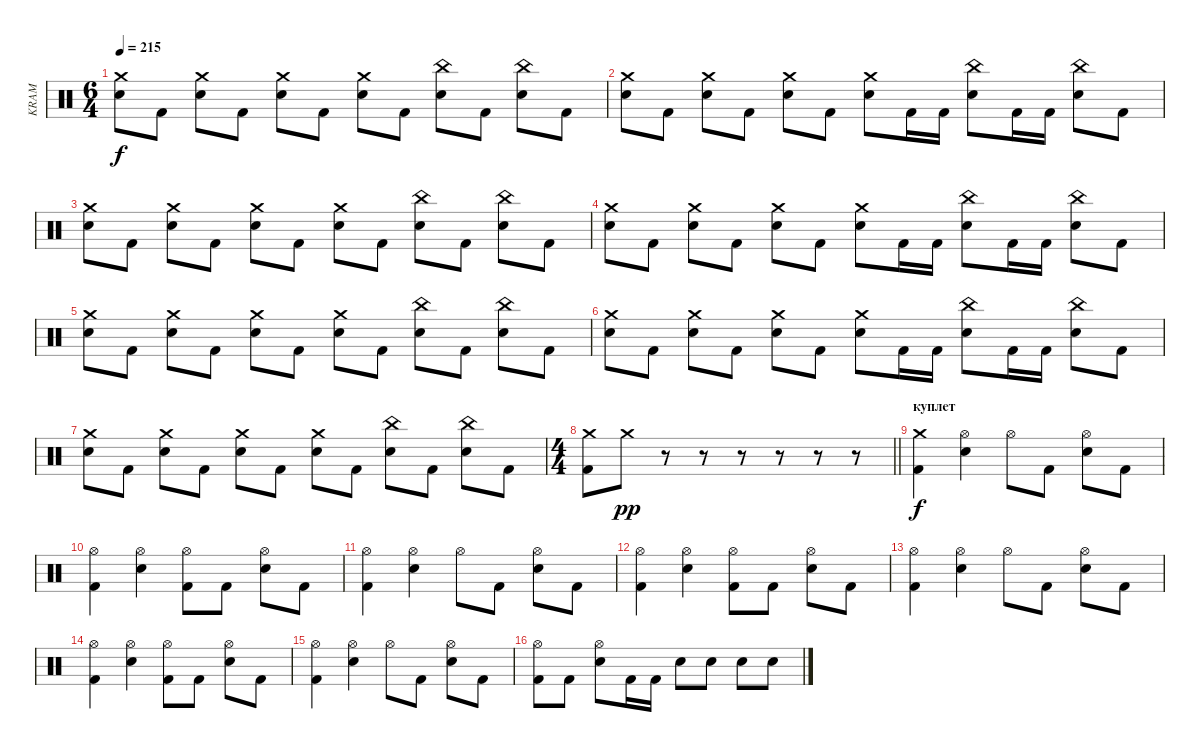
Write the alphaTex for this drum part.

\track ("KRAM" "KRAM") {instrument percussion}
\staff {score}
\articulation defaults
\ts (6 4)
\tempo 215
\clef neutral
\ks c
("Electric Snare (hit)" "Crash medium (hit)").8{dy f} "Kick (hit) 2".8 ("Electric Snare (hit)" "Crash medium (hit)").8 "Kick (hit) 2".8 ("Electric Snare (hit)" "Crash medium (hit)").8 "Kick (hit) 2".8 ("Electric Snare (hit)" "Crash medium (hit)").8 "Kick (hit) 2".8 ("Electric Snare (hit)" "China (hit)").8 "Kick (hit) 2".8 ("Electric Snare (hit)" "China (hit)").8 "Kick (hit) 2".8 |
("Electric Snare (hit)" "Crash medium (hit)").8 "Kick (hit) 2".8 ("Electric Snare (hit)" "Crash medium (hit)").8 "Kick (hit) 2".8 ("Electric Snare (hit)" "Crash medium (hit)").8 "Kick (hit) 2".8 ("Electric Snare (hit)" "Crash medium (hit)").8 "Kick (hit) 2".16 "Kick (hit) 2".16 ("Electric Snare (hit)" "China (hit)").8 "Kick (hit) 2".16 "Kick (hit) 2".16 ("Electric Snare (hit)" "China (hit)").8 "Kick (hit) 2".8 |
("Electric Snare (hit)" "Crash medium (hit)").8 "Kick (hit) 2".8 ("Electric Snare (hit)" "Crash medium (hit)").8 "Kick (hit) 2".8 ("Electric Snare (hit)" "Crash medium (hit)").8 "Kick (hit) 2".8 ("Electric Snare (hit)" "Crash medium (hit)").8 "Kick (hit) 2".8 ("Electric Snare (hit)" "China (hit)").8 "Kick (hit) 2".8 ("Electric Snare (hit)" "China (hit)").8 "Kick (hit) 2".8 |
("Electric Snare (hit)" "Crash medium (hit)").8 "Kick (hit) 2".8 ("Electric Snare (hit)" "Crash medium (hit)").8 "Kick (hit) 2".8 ("Electric Snare (hit)" "Crash medium (hit)").8 "Kick (hit) 2".8 ("Electric Snare (hit)" "Crash medium (hit)").8 "Kick (hit) 2".16 "Kick (hit) 2".16 ("Electric Snare (hit)" "China (hit)").8 "Kick (hit) 2".16 "Kick (hit) 2".16 ("Electric Snare (hit)" "China (hit)").8 "Kick (hit) 2".8 |
("Electric Snare (hit)" "Crash medium (hit)").8 "Kick (hit) 2".8 ("Electric Snare (hit)" "Crash medium (hit)").8 "Kick (hit) 2".8 ("Electric Snare (hit)" "Crash medium (hit)").8 "Kick (hit) 2".8 ("Electric Snare (hit)" "Crash medium (hit)").8 "Kick (hit) 2".8 ("Electric Snare (hit)" "China (hit)").8 "Kick (hit) 2".8 ("Electric Snare (hit)" "China (hit)").8 "Kick (hit) 2".8 |
("Electric Snare (hit)" "Crash medium (hit)").8 "Kick (hit) 2".8 ("Electric Snare (hit)" "Crash medium (hit)").8 "Kick (hit) 2".8 ("Electric Snare (hit)" "Crash medium (hit)").8 "Kick (hit) 2".8 ("Electric Snare (hit)" "Crash medium (hit)").8 "Kick (hit) 2".16 "Kick (hit) 2".16 ("Electric Snare (hit)" "China (hit)").8 "Kick (hit) 2".16 "Kick (hit) 2".16 ("Electric Snare (hit)" "China (hit)").8 "Kick (hit) 2".8 |
("Electric Snare (hit)" "Crash medium (hit)").8 "Kick (hit) 2".8 ("Electric Snare (hit)" "Crash medium (hit)").8 "Kick (hit) 2".8 ("Electric Snare (hit)" "Crash medium (hit)").8 "Kick (hit) 2".8 ("Electric Snare (hit)" "Crash medium (hit)").8 "Kick (hit) 2".8 ("Electric Snare (hit)" "China (hit)").8 "Kick (hit) 2".8 ("Electric Snare (hit)" "China (hit)").8 "Kick (hit) 2".8 |
\ts (4 4)
\barLineRight lightlight
("Kick (hit) 2" "Crash medium (hit)").8 "Crash medium (hit)".8{dy pp} r.8 r.8 r.8 r.8 r.8 r.8 |
\section ("" "куплет")
("Kick (hit) 2" "Crash medium (hit)").4{dy f} ("Electric Snare (hit)" "Hi-Hat (open)").4 "Hi-Hat (open)".8 "Kick (hit) 2".8 ("Electric Snare (hit)" "Hi-Hat (open)").8 "Kick (hit) 2".8 |
("Kick (hit) 2" "Hi-Hat (open)").4 ("Electric Snare (hit)" "Hi-Hat (open)").4 ("Kick (hit) 2" "Hi-Hat (open)").8 "Kick (hit) 2".8 ("Electric Snare (hit)" "Hi-Hat (open)").8 "Kick (hit) 2".8 |
("Kick (hit) 2" "Hi-Hat (open)").4 ("Electric Snare (hit)" "Hi-Hat (open)").4 "Hi-Hat (open)".8 "Kick (hit) 2".8 ("Electric Snare (hit)" "Hi-Hat (open)").8 "Kick (hit) 2".8 |
("Kick (hit) 2" "Hi-Hat (open)").4 ("Electric Snare (hit)" "Hi-Hat (open)").4 ("Kick (hit) 2" "Hi-Hat (open)").8 "Kick (hit) 2".8 ("Electric Snare (hit)" "Hi-Hat (open)").8 "Kick (hit) 2".8 |
("Kick (hit) 2" "Hi-Hat (open)").4 ("Electric Snare (hit)" "Hi-Hat (open)").4 "Hi-Hat (open)".8 "Kick (hit) 2".8 ("Electric Snare (hit)" "Hi-Hat (open)").8 "Kick (hit) 2".8 |
("Kick (hit) 2" "Hi-Hat (open)").4 ("Electric Snare (hit)" "Hi-Hat (open)").4 ("Kick (hit) 2" "Hi-Hat (open)").8 "Kick (hit) 2".8 ("Electric Snare (hit)" "Hi-Hat (open)").8 "Kick (hit) 2".8 |
("Kick (hit) 2" "Hi-Hat (open)").4 ("Electric Snare (hit)" "Hi-Hat (open)").4 "Hi-Hat (open)".8 "Kick (hit) 2".8 ("Electric Snare (hit)" "Hi-Hat (open)").8 "Kick (hit) 2".8 |
("Kick (hit) 2" "Hi-Hat (open)").8 "Kick (hit) 2".8 ("Electric Snare (hit)" "Hi-Hat (open)").8 "Kick (hit) 2".16 "Kick (hit) 2".16 "Electric Snare (hit)".8 "Electric Snare (hit)".8 "Electric Snare (hit)".8 "Electric Snare (hit)".8
